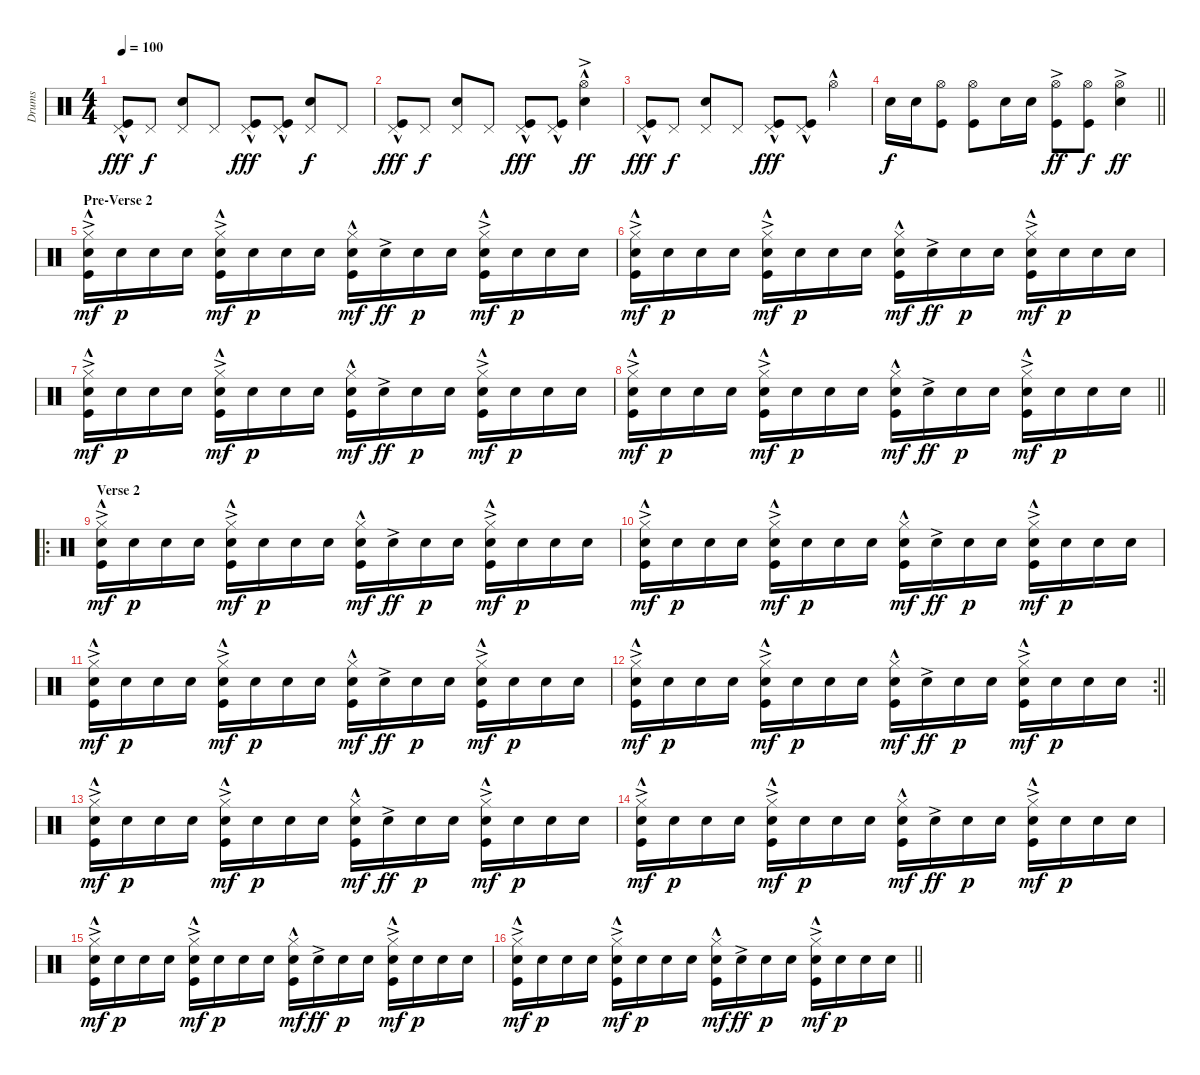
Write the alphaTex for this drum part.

\track ("Drums" "Drums") {instrument percussion}
\staff {score}
\articulation defaults
\ts (4 4)
\tempo 100
\clef neutral
\ks c
("Pedal Hi-Hat (hit)" "Kick (hit)"{hac}).8{dy fff} "Pedal Hi-Hat (hit)".8{dy f} ("Pedal Hi-Hat (hit)" "Snare (hit) 2").8 "Pedal Hi-Hat (hit)".8 ("Pedal Hi-Hat (hit)" "Kick (hit)"{hac}).8{dy fff} ("Pedal Hi-Hat (hit)" "Kick (hit)"{hac}).8 ("Pedal Hi-Hat (hit)" "Snare (hit) 2").8{dy f} "Pedal Hi-Hat (hit)".8 |
("Pedal Hi-Hat (hit)" "Kick (hit)"{hac}).8{dy fff} "Pedal Hi-Hat (hit)".8{dy f} ("Pedal Hi-Hat (hit)" "Snare (hit) 2").8 "Pedal Hi-Hat (hit)".8 ("Pedal Hi-Hat (hit)" "Kick (hit)"{hac}).8{dy fff} ("Pedal Hi-Hat (hit)" "Kick (hit)"{hac}).8 ("Hi-Hat (open)"{hac} "Snare (hit) 2"{ac}).4{dy ff} |
("Pedal Hi-Hat (hit)" "Kick (hit)"{hac}).8{dy fff} "Pedal Hi-Hat (hit)".8{dy f} ("Pedal Hi-Hat (hit)" "Snare (hit) 2").8 "Pedal Hi-Hat (hit)".8 ("Pedal Hi-Hat (hit)" "Kick (hit)"{hac}).8{dy fff} ("Pedal Hi-Hat (hit)" "Kick (hit)"{hac}).8 "Hi-Hat (open)"{hac}.4 |
\barLineRight lightlight "Snare (hit) 2".16{dy f} "Snare (hit) 2".16
("Hi-Hat (open)" "Kick (hit)").8 ("Hi-Hat (open)" "Kick (hit)").8 "Snare (hit) 2".16 "Snare (hit) 2".16 ("Hi-Hat (open)"{ac} "Kick (hit)").8{dy ff} ("Hi-Hat (open)" "Kick (hit)").8{dy f} ("Hi-Hat (open)"{ac} "Snare (hit) 2"{ac}).4{dy ff} |
\section ("" "Pre-Verse 2")
("Hi-Hat (closed)" "Snare (hit) 2"{ac} "Kick (hit)"{hac}).16{dy mf} "Snare (hit) 2".16{dy p} "Snare (hit) 2".16 "Snare (hit) 2".16 ("Hi-Hat (closed)" "Snare (hit) 2"{ac} "Kick (hit)"{hac}).16{dy mf} "Snare (hit) 2".16{dy p} "Snare (hit) 2".16 "Snare (hit) 2".16 ("Hi-Hat (closed)" "Snare (hit) 2" "Kick (hit)"{hac}).16{dy mf} "Snare (hit) 2"{ac}.16{dy ff} "Snare (hit) 2".16{dy p} "Snare (hit) 2".16 ("Hi-Hat (closed)" "Snare (hit) 2"{ac} "Kick (hit)"{hac}).16{dy mf} "Snare (hit) 2".16{dy p} "Snare (hit) 2".16 "Snare (hit) 2".16 |
("Hi-Hat (closed)" "Snare (hit) 2"{ac} "Kick (hit)"{hac}).16{dy mf} "Snare (hit) 2".16{dy p} "Snare (hit) 2".16 "Snare (hit) 2".16 ("Hi-Hat (closed)" "Snare (hit) 2"{ac} "Kick (hit)"{hac}).16{dy mf} "Snare (hit) 2".16{dy p} "Snare (hit) 2".16 "Snare (hit) 2".16 ("Hi-Hat (closed)" "Snare (hit) 2" "Kick (hit)"{hac}).16{dy mf} "Snare (hit) 2"{ac}.16{dy ff} "Snare (hit) 2".16{dy p} "Snare (hit) 2".16 ("Hi-Hat (closed)" "Snare (hit) 2"{ac} "Kick (hit)"{hac}).16{dy mf} "Snare (hit) 2".16{dy p} "Snare (hit) 2".16 "Snare (hit) 2".16 |
("Hi-Hat (closed)" "Snare (hit) 2"{ac} "Kick (hit)"{hac}).16{dy mf} "Snare (hit) 2".16{dy p} "Snare (hit) 2".16 "Snare (hit) 2".16 ("Hi-Hat (closed)" "Snare (hit) 2"{ac} "Kick (hit)"{hac}).16{dy mf} "Snare (hit) 2".16{dy p} "Snare (hit) 2".16 "Snare (hit) 2".16 ("Hi-Hat (closed)" "Snare (hit) 2" "Kick (hit)"{hac}).16{dy mf} "Snare (hit) 2"{ac}.16{dy ff} "Snare (hit) 2".16{dy p} "Snare (hit) 2".16 ("Hi-Hat (closed)" "Snare (hit) 2"{ac} "Kick (hit)"{hac}).16{dy mf} "Snare (hit) 2".16{dy p} "Snare (hit) 2".16 "Snare (hit) 2".16 |
\barLineRight lightlight
("Hi-Hat (closed)" "Snare (hit) 2"{ac} "Kick (hit)"{hac}).16{dy mf} "Snare (hit) 2".16{dy p} "Snare (hit) 2".16 "Snare (hit) 2".16 ("Hi-Hat (closed)" "Snare (hit) 2"{ac} "Kick (hit)"{hac}).16{dy mf} "Snare (hit) 2".16{dy p} "Snare (hit) 2".16 "Snare (hit) 2".16 ("Hi-Hat (closed)" "Snare (hit) 2" "Kick (hit)"{hac}).16{dy mf} "Snare (hit) 2"{ac}.16{dy ff} "Snare (hit) 2".16{dy p} "Snare (hit) 2".16 ("Hi-Hat (closed)" "Snare (hit) 2"{ac} "Kick (hit)"{hac}).16{dy mf} "Snare (hit) 2".16{dy p} "Snare (hit) 2".16 "Snare (hit) 2".16 |
\ro
\section ("" "Verse 2")
("Hi-Hat (closed)" "Snare (hit) 2"{ac} "Kick (hit)"{hac}).16{dy mf} "Snare (hit) 2".16{dy p} "Snare (hit) 2".16 "Snare (hit) 2".16 ("Hi-Hat (closed)" "Snare (hit) 2"{ac} "Kick (hit)"{hac}).16{dy mf} "Snare (hit) 2".16{dy p} "Snare (hit) 2".16 "Snare (hit) 2".16 ("Hi-Hat (closed)" "Snare (hit) 2" "Kick (hit)"{hac}).16{dy mf} "Snare (hit) 2"{ac}.16{dy ff} "Snare (hit) 2".16{dy p} "Snare (hit) 2".16 ("Hi-Hat (closed)" "Snare (hit) 2"{ac} "Kick (hit)"{hac}).16{dy mf} "Snare (hit) 2".16{dy p} "Snare (hit) 2".16 "Snare (hit) 2".16 |
("Hi-Hat (closed)" "Snare (hit) 2"{ac} "Kick (hit)"{hac}).16{dy mf} "Snare (hit) 2".16{dy p} "Snare (hit) 2".16 "Snare (hit) 2".16 ("Hi-Hat (closed)" "Snare (hit) 2"{ac} "Kick (hit)"{hac}).16{dy mf} "Snare (hit) 2".16{dy p} "Snare (hit) 2".16 "Snare (hit) 2".16 ("Hi-Hat (closed)" "Snare (hit) 2" "Kick (hit)"{hac}).16{dy mf} "Snare (hit) 2"{ac}.16{dy ff} "Snare (hit) 2".16{dy p} "Snare (hit) 2".16 ("Hi-Hat (closed)" "Snare (hit) 2"{ac} "Kick (hit)"{hac}).16{dy mf} "Snare (hit) 2".16{dy p} "Snare (hit) 2".16 "Snare (hit) 2".16 |
("Hi-Hat (closed)" "Snare (hit) 2"{ac} "Kick (hit)"{hac}).16{dy mf} "Snare (hit) 2".16{dy p} "Snare (hit) 2".16 "Snare (hit) 2".16 ("Hi-Hat (closed)" "Snare (hit) 2"{ac} "Kick (hit)"{hac}).16{dy mf} "Snare (hit) 2".16{dy p} "Snare (hit) 2".16 "Snare (hit) 2".16 ("Hi-Hat (closed)" "Snare (hit) 2" "Kick (hit)"{hac}).16{dy mf} "Snare (hit) 2"{ac}.16{dy ff} "Snare (hit) 2".16{dy p} "Snare (hit) 2".16 ("Hi-Hat (closed)" "Snare (hit) 2"{ac} "Kick (hit)"{hac}).16{dy mf} "Snare (hit) 2".16{dy p} "Snare (hit) 2".16 "Snare (hit) 2".16 |
\rc 2
\barLineRight lightlight
("Hi-Hat (closed)" "Snare (hit) 2"{ac} "Kick (hit)"{hac}).16{dy mf} "Snare (hit) 2".16{dy p} "Snare (hit) 2".16 "Snare (hit) 2".16 ("Hi-Hat (closed)" "Snare (hit) 2"{ac} "Kick (hit)"{hac}).16{dy mf} "Snare (hit) 2".16{dy p} "Snare (hit) 2".16 "Snare (hit) 2".16 ("Hi-Hat (closed)" "Snare (hit) 2" "Kick (hit)"{hac}).16{dy mf} "Snare (hit) 2"{ac}.16{dy ff} "Snare (hit) 2".16{dy p} "Snare (hit) 2".16 ("Hi-Hat (closed)" "Snare (hit) 2"{ac} "Kick (hit)"{hac}).16{dy mf} "Snare (hit) 2".16{dy p} "Snare (hit) 2".16 "Snare (hit) 2".16 |
("Hi-Hat (closed)" "Snare (hit) 2"{ac} "Kick (hit)"{hac}).16{dy mf} "Snare (hit) 2".16{dy p} "Snare (hit) 2".16 "Snare (hit) 2".16 ("Hi-Hat (closed)" "Snare (hit) 2"{ac} "Kick (hit)"{hac}).16{dy mf} "Snare (hit) 2".16{dy p} "Snare (hit) 2".16 "Snare (hit) 2".16 ("Hi-Hat (closed)" "Snare (hit) 2" "Kick (hit)"{hac}).16{dy mf} "Snare (hit) 2"{ac}.16{dy ff} "Snare (hit) 2".16{dy p} "Snare (hit) 2".16 ("Hi-Hat (closed)" "Snare (hit) 2"{ac} "Kick (hit)"{hac}).16{dy mf} "Snare (hit) 2".16{dy p} "Snare (hit) 2".16 "Snare (hit) 2".16 |
("Hi-Hat (closed)" "Snare (hit) 2"{ac} "Kick (hit)"{hac}).16{dy mf} "Snare (hit) 2".16{dy p} "Snare (hit) 2".16 "Snare (hit) 2".16 ("Hi-Hat (closed)" "Snare (hit) 2"{ac} "Kick (hit)"{hac}).16{dy mf} "Snare (hit) 2".16{dy p} "Snare (hit) 2".16 "Snare (hit) 2".16 ("Hi-Hat (closed)" "Snare (hit) 2" "Kick (hit)"{hac}).16{dy mf} "Snare (hit) 2"{ac}.16{dy ff} "Snare (hit) 2".16{dy p} "Snare (hit) 2".16 ("Hi-Hat (closed)" "Snare (hit) 2"{ac} "Kick (hit)"{hac}).16{dy mf} "Snare (hit) 2".16{dy p} "Snare (hit) 2".16 "Snare (hit) 2".16 |
("Hi-Hat (closed)" "Snare (hit) 2"{ac} "Kick (hit)"{hac}).16{dy mf} "Snare (hit) 2".16{dy p} "Snare (hit) 2".16 "Snare (hit) 2".16 ("Hi-Hat (closed)" "Snare (hit) 2"{ac} "Kick (hit)"{hac}).16{dy mf} "Snare (hit) 2".16{dy p} "Snare (hit) 2".16 "Snare (hit) 2".16 ("Hi-Hat (closed)" "Snare (hit) 2" "Kick (hit)"{hac}).16{dy mf} "Snare (hit) 2"{ac}.16{dy ff} "Snare (hit) 2".16{dy p} "Snare (hit) 2".16 ("Hi-Hat (closed)" "Snare (hit) 2"{ac} "Kick (hit)"{hac}).16{dy mf} "Snare (hit) 2".16{dy p} "Snare (hit) 2".16 "Snare (hit) 2".16 |
\barLineRight lightlight
("Hi-Hat (closed)" "Snare (hit) 2"{ac} "Kick (hit)"{hac}).16{dy mf} "Snare (hit) 2".16{dy p} "Snare (hit) 2".16 "Snare (hit) 2".16 ("Hi-Hat (closed)" "Snare (hit) 2"{ac} "Kick (hit)"{hac}).16{dy mf} "Snare (hit) 2".16{dy p} "Snare (hit) 2".16 "Snare (hit) 2".16 ("Hi-Hat (closed)" "Snare (hit) 2" "Kick (hit)"{hac}).16{dy mf} "Snare (hit) 2"{ac}.16{dy ff} "Snare (hit) 2".16{dy p} "Snare (hit) 2".16 ("Hi-Hat (closed)" "Snare (hit) 2"{ac} "Kick (hit)"{hac}).16{dy mf} "Snare (hit) 2".16{dy p} "Snare (hit) 2".16 "Snare (hit) 2".16
